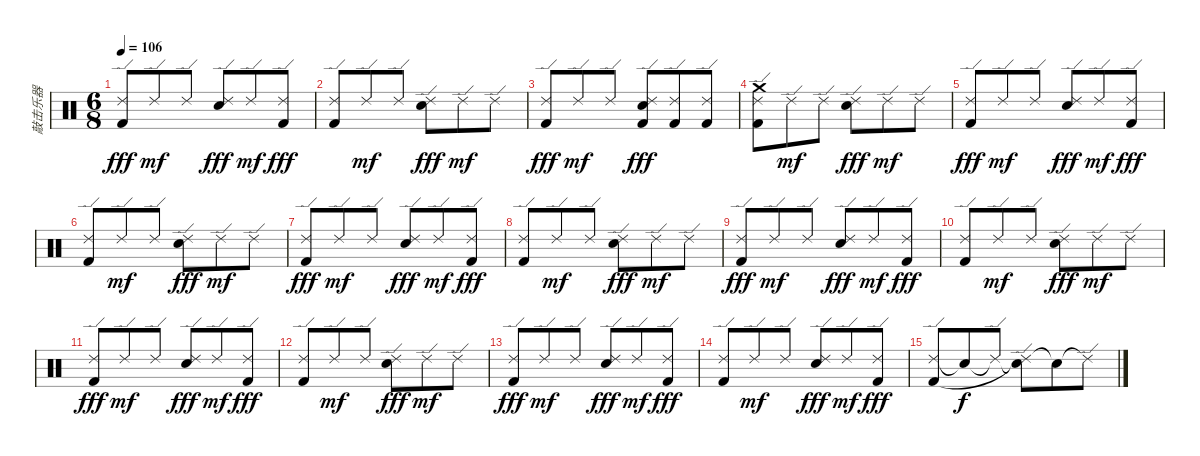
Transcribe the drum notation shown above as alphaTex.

\track ("敲击乐器" "敲击乐器") {instrument percussion}
\staff {score}
\articulation defaults
\ts (6 8)
\tempo 106
\clef neutral
\ks c
("Ride (edge) 2" "Kick (hit) 2").8{dy fff} "Ride (edge) 2".8{dy mf} "Ride (edge) 2".8 ("Ride (edge) 2" "Snare (hit) 2").8{dy fff} "Ride (edge) 2".8{dy mf} ("Ride (edge) 2" "Kick (hit) 2").8{dy fff} |
("Ride (edge) 2" "Kick (hit) 2").8 "Ride (edge) 2".8{dy mf} "Ride (edge) 2".8 ("Ride (edge) 2" "Snare (hit) 2").8{dy fff} "Ride (edge) 2".8{dy mf} "Ride (edge) 2".8 |
("Ride (edge) 2" "Kick (hit) 2").8{dy fff} "Ride (edge) 2".8{dy mf} "Ride (edge) 2".8 ("Ride (edge) 2" "Snare (hit) 2" "Kick (hit) 2").8{dy fff} ("Ride (edge) 2" "Kick (hit) 2").8 ("Ride (edge) 2" "Kick (hit) 2").8 |
("Ride (edge) 2" "Crash medium (hit)" "Kick (hit) 2").8 "Ride (edge) 2".8{dy mf} "Ride (edge) 2".8 ("Ride (edge) 2" "Snare (hit) 2").8{dy fff} "Ride (edge) 2".8{dy mf} "Ride (edge) 2".8 |
("Ride (edge) 2" "Kick (hit) 2").8{dy fff} "Ride (edge) 2".8{dy mf} "Ride (edge) 2".8 ("Ride (edge) 2" "Snare (hit) 2").8{dy fff} "Ride (edge) 2".8{dy mf} ("Ride (edge) 2" "Kick (hit) 2").8{dy fff} |
("Ride (edge) 2" "Kick (hit) 2").8 "Ride (edge) 2".8{dy mf} "Ride (edge) 2".8 ("Ride (edge) 2" "Snare (hit) 2").8{dy fff} "Ride (edge) 2".8{dy mf} "Ride (edge) 2".8 |
("Ride (edge) 2" "Kick (hit) 2").8{dy fff} "Ride (edge) 2".8{dy mf} "Ride (edge) 2".8 ("Ride (edge) 2" "Snare (hit) 2").8{dy fff} "Ride (edge) 2".8{dy mf} ("Ride (edge) 2" "Kick (hit) 2").8{dy fff} |
("Ride (edge) 2" "Kick (hit) 2").8 "Ride (edge) 2".8{dy mf} "Ride (edge) 2".8 ("Ride (edge) 2" "Snare (hit) 2").8{dy fff} "Ride (edge) 2".8{dy mf} "Ride (edge) 2".8 |
("Ride (edge) 2" "Kick (hit) 2").8{dy fff} "Ride (edge) 2".8{dy mf} "Ride (edge) 2".8 ("Ride (edge) 2" "Snare (hit) 2").8{dy fff} "Ride (edge) 2".8{dy mf} ("Ride (edge) 2" "Kick (hit) 2").8{dy fff} |
("Ride (edge) 2" "Kick (hit) 2").8 "Ride (edge) 2".8{dy mf} "Ride (edge) 2".8 ("Ride (edge) 2" "Snare (hit) 2").8{dy fff} "Ride (edge) 2".8{dy mf} "Ride (edge) 2".8 |
("Ride (edge) 2" "Kick (hit) 2").8{dy fff} "Ride (edge) 2".8{dy mf} "Ride (edge) 2".8 ("Ride (edge) 2" "Snare (hit) 2").8{dy fff} "Ride (edge) 2".8{dy mf} ("Ride (edge) 2" "Kick (hit) 2").8{dy fff} |
("Ride (edge) 2" "Kick (hit) 2").8 "Ride (edge) 2".8{dy mf} "Ride (edge) 2".8 ("Ride (edge) 2" "Snare (hit) 2").8{dy fff} "Ride (edge) 2".8{dy mf} "Ride (edge) 2".8 |
("Ride (edge) 2" "Kick (hit) 2").8{dy fff} "Ride (edge) 2".8{dy mf} "Ride (edge) 2".8 ("Ride (edge) 2" "Snare (hit) 2").8{dy fff} "Ride (edge) 2".8{dy mf} ("Ride (edge) 2" "Kick (hit) 2").8{dy fff} |
("Ride (edge) 2" "Kick (hit) 2").8 "Ride (edge) 2".8{dy mf} "Ride (edge) 2".8 ("Ride (edge) 2" "Snare (hit) 2").8{dy fff} "Ride (edge) 2".8{dy mf} ("Ride (edge) 2" "Kick (hit) 2").8{dy fff} |
("Ride (edge) 2" "Kick (hit) 2").8 "Snare (hit)"{t}.8{dy f} "Ride (edge) 2"{t}.8 ("Ride (edge) 2"{t} "Snare (hit) 2"{t}).8 "Snare (hit)"{t}.8 "Ride (edge) 2"{t}.8
